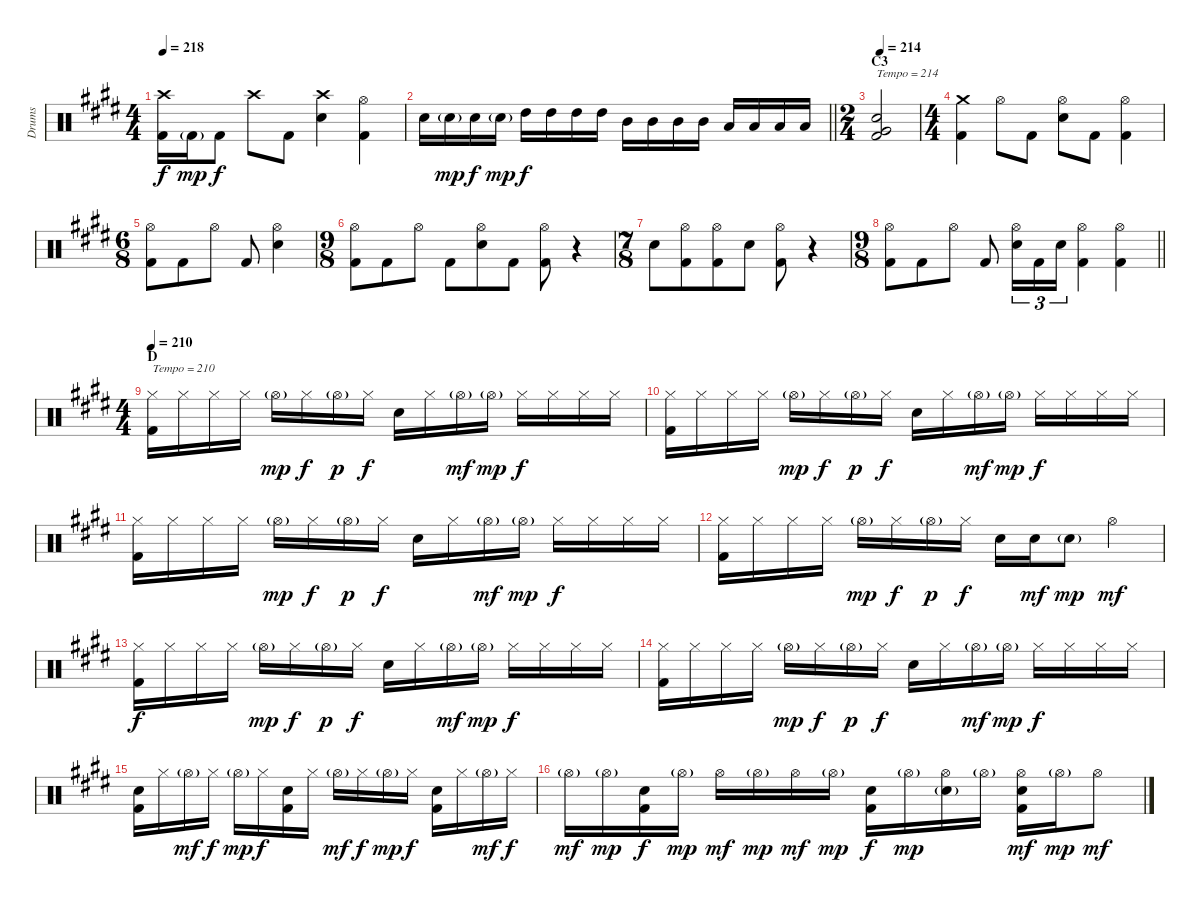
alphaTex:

\track ("Drums" "Drums") {instrument percussion}
\staff {score}
\articulation defaults
\ts (4 4)
\tempo 218
\clef neutral
\ks c#minor
("Crash high (hit)" "Kick (hit) 2").16{dy f} "Kick (hit) 2"{g}.16{dy mp} "Kick (hit) 2".8{dy f} "Crash high (hit)".8 "Kick (hit) 2".8 ("Crash high (hit)" "Snare (hit) 2").4 ("Hi-Hat (open)" "Kick (hit) 2").4 |
\barLineRight lightlight "Snare (hit) 2".16 "Snare (hit) 2"{g}.16{dy mp} "Snare (hit) 2".16{dy f} "Snare (hit) 2"{g}.16{dy mp} "High Tom (hit)".16{dy f} "High Tom (hit)".16 "High Tom (hit)".16 "High Tom (hit)".16 "Mid Tom (hit)".16 "Mid Tom (hit)".16 "Mid Tom (hit)".16 "Mid Tom (hit)".16 "Low Tom (hit)".16 "Low Tom (hit)".16 "Low Tom (hit)".16 "Low Tom (hit)".16
|
\ts (2 4)
\section ("" "C3")
\tempo 214
("Snare (hit) 2" "Very Low Tom (hit)" "Kick (hit) 2").2{txt "Tempo = 214"} |
\ts (4 4)
("Crash medium (hit)" "Kick (hit) 2").4 "Hi-Hat (open)".8 "Kick (hit) 2".8 ("Hi-Hat (open)" "Snare (hit) 2").8 "Kick (hit) 2".8 ("Hi-Hat (open)" "Kick (hit) 2").4 |
\ts (6 8)
("Hi-Hat (open)" "Kick (hit) 2").8 "Kick (hit) 2".8 "Hi-Hat (open)".8 "Kick (hit) 2".8 ("Hi-Hat (open)" "Snare (hit) 2").4 |
\ts (9 8)
("Hi-Hat (open)" "Kick (hit) 2").8 "Kick (hit) 2".8 "Hi-Hat (open)".8 "Kick (hit) 2".8 ("Hi-Hat (open)" "Snare (hit) 2").8 "Kick (hit) 2".8 ("Hi-Hat (open)" "Kick (hit) 2").8 r.4 |
\ts (7 8)
"Snare (hit) 2".8 ("Hi-Hat (open)" "Kick (hit) 2").8 ("Hi-Hat (open)" "Kick (hit) 2").8 "Snare (hit) 2".8 ("Hi-Hat (open)" "Kick (hit) 2").8 r.4 |
\ts (9 8)
\barLineRight lightlight
("Hi-Hat (open)" "Kick (hit) 2").8 "Kick (hit) 2".8 "Hi-Hat (open)".8 "Kick (hit) 2".8 ("Hi-Hat (open)" "Snare (hit) 2").16{tu (3 2)} "Kick (hit) 2".16{tu (3 2)} "Snare (hit) 2".16{tu (3 2)} ("Hi-Hat (open)" "Kick (hit) 2").4 ("Hi-Hat (open)" "Kick (hit) 2").4 |
\ts (4 4)
\section ("" "D")
\tempo 210
("Hi-Hat (closed)" "Kick (hit) 2").16{txt "Tempo = 210"} "Hi-Hat (closed)".16 "Hi-Hat (closed)".16 "Hi-Hat (closed)".16 "Hi-Hat (open)"{g}.16{dy mp} "Hi-Hat (closed)".16{dy f} "Hi-Hat (open)"{g}.16{dy p} "Hi-Hat (closed)".16{dy f} "Snare (hit) 2".16 "Hi-Hat (closed)".16 "Hi-Hat (open)"{g}.16{dy mf} "Hi-Hat (open)"{g}.16{dy mp} "Hi-Hat (closed)".16{dy f} "Hi-Hat (closed)".16 "Hi-Hat (closed)".16 "Hi-Hat (closed)".16 |
("Hi-Hat (closed)" "Kick (hit) 2").16 "Hi-Hat (closed)".16 "Hi-Hat (closed)".16 "Hi-Hat (closed)".16 "Hi-Hat (open)"{g}.16{dy mp} "Hi-Hat (closed)".16{dy f} "Hi-Hat (open)"{g}.16{dy p} "Hi-Hat (closed)".16{dy f} "Snare (hit) 2".16 "Hi-Hat (closed)".16 "Hi-Hat (open)"{g}.16{dy mf} "Hi-Hat (open)"{g}.16{dy mp} "Hi-Hat (closed)".16{dy f} "Hi-Hat (closed)".16 "Hi-Hat (closed)".16 "Hi-Hat (closed)".16 |
("Hi-Hat (closed)" "Kick (hit) 2").16 "Hi-Hat (closed)".16 "Hi-Hat (closed)".16 "Hi-Hat (closed)".16 "Hi-Hat (open)"{g}.16{dy mp} "Hi-Hat (closed)".16{dy f} "Hi-Hat (open)"{g}.16{dy p} "Hi-Hat (closed)".16{dy f} "Snare (hit) 2".16 "Hi-Hat (closed)".16 "Hi-Hat (open)"{g}.16{dy mf} "Hi-Hat (open)"{g}.16{dy mp} "Hi-Hat (closed)".16{dy f} "Hi-Hat (closed)".16 "Hi-Hat (closed)".16 "Hi-Hat (closed)".16 |
("Hi-Hat (closed)" "Kick (hit) 2").16 "Hi-Hat (closed)".16 "Hi-Hat (closed)".16 "Hi-Hat (closed)".16 "Hi-Hat (open)"{g}.16{dy mp} "Hi-Hat (closed)".16{dy f} "Hi-Hat (open)"{g}.16{dy p} "Hi-Hat (closed)".16{dy f} "Snare (hit) 2".16 "Snare (hit) 2".16{dy mf} "Snare (hit) 2"{g}.8{dy mp} "Hi-Hat (open)".4{dy mf} |
("Hi-Hat (closed)" "Kick (hit) 2").16{dy f} "Hi-Hat (closed)".16 "Hi-Hat (closed)".16 "Hi-Hat (closed)".16 "Hi-Hat (open)"{g}.16{dy mp} "Hi-Hat (closed)".16{dy f} "Hi-Hat (open)"{g}.16{dy p} "Hi-Hat (closed)".16{dy f} "Snare (hit) 2".16 "Hi-Hat (closed)".16 "Hi-Hat (open)"{g}.16{dy mf} "Hi-Hat (open)"{g}.16{dy mp} "Hi-Hat (closed)".16{dy f} "Hi-Hat (closed)".16 "Hi-Hat (closed)".16 "Hi-Hat (closed)".16 |
("Hi-Hat (closed)" "Kick (hit) 2").16 "Hi-Hat (closed)".16 "Hi-Hat (closed)".16 "Hi-Hat (closed)".16 "Hi-Hat (open)"{g}.16{dy mp} "Hi-Hat (closed)".16{dy f} "Hi-Hat (open)"{g}.16{dy p} "Hi-Hat (closed)".16{dy f} "Snare (hit) 2".16 "Hi-Hat (closed)".16 "Hi-Hat (open)"{g}.16{dy mf} "Hi-Hat (open)"{g}.16{dy mp} "Hi-Hat (closed)".16{dy f} "Hi-Hat (closed)".16 "Hi-Hat (closed)".16 "Hi-Hat (closed)".16 |
("Snare (hit) 2" "Kick (hit) 2").16 "Hi-Hat (closed)".16 "Hi-Hat (open)"{g}.16{dy mf} "Hi-Hat (closed)".16{dy f} "Hi-Hat (open)"{g}.16{dy mp} "Hi-Hat (closed)".16{dy f} ("Snare (hit) 2" "Kick (hit) 2").16 "Hi-Hat (closed)".16 "Hi-Hat (open)"{g}.16{dy mf} "Hi-Hat (closed)".16{dy f} "Hi-Hat (open)"{g}.16{dy mp} "Hi-Hat (closed)".16{dy f} ("Snare (hit) 2" "Kick (hit) 2").16 "Hi-Hat (closed)".16 "Hi-Hat (open)"{g}.16{dy mf} "Hi-Hat (closed)".16{dy f} |
"Hi-Hat (open)"{g}.16{dy mf} "Hi-Hat (open)"{g}.16{dy mp} ("Snare (hit) 2" "Kick (hit) 2").16{dy f} "Hi-Hat (open)"{g}.16{dy mp} "Hi-Hat (open)".16{dy mf} "Hi-Hat (open)"{g}.16{dy mp} "Hi-Hat (open)".16{dy mf} "Hi-Hat (open)"{g}.16{dy mp} ("Snare (hit) 2" "Kick (hit) 2").16{dy f} "Hi-Hat (open)"{g}.16{dy mp} ("Hi-Hat (open)" "Snare (hit) 2"{g}).16 "Hi-Hat (open)"{g}.16 ("Hi-Hat (open)" "Snare (hit) 2" "Kick (hit) 2").16{dy mf} "Hi-Hat (open)"{g}.16{dy mp} "Hi-Hat (open)".8{dy mf}
